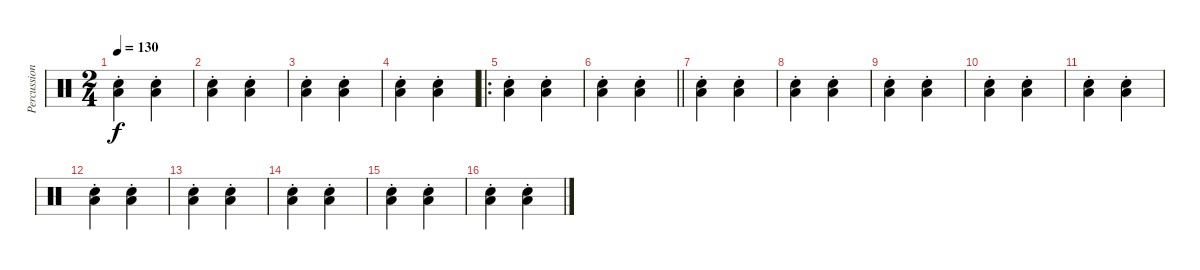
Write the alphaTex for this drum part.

\track ("Percussion" "Percussion") {instrument percussion}
\staff {score}
\articulation defaults
\ts (2 4)
\tempo 130
\clef neutral
\ks c
("Snare (hit) 2"{st} "Low Floor Tom (hit)"{st}).4{dy f} ("Snare (hit) 2"{st} "Low Floor Tom (hit)"{st}).4 |
("Snare (hit) 2"{st} "Low Floor Tom (hit)"{st}).4 ("Snare (hit) 2"{st} "Low Floor Tom (hit)"{st}).4 |
("Snare (hit) 2"{st} "Low Floor Tom (hit)"{st}).4 ("Snare (hit) 2"{st} "Low Floor Tom (hit)"{st}).4 |
("Snare (hit) 2"{st} "Low Floor Tom (hit)"{st}).4 ("Snare (hit) 2"{st} "Low Floor Tom (hit)"{st}).4 |
\ro
("Snare (hit) 2"{st} "Low Floor Tom (hit)"{st}).4 ("Snare (hit) 2"{st} "Low Floor Tom (hit)"{st}).4 |
\barLineRight lightlight
("Snare (hit) 2"{st} "Low Floor Tom (hit)"{st}).4 ("Snare (hit) 2"{st} "Low Floor Tom (hit)"{st}).4 |
("Snare (hit) 2"{st} "Low Floor Tom (hit)"{st}).4 ("Snare (hit) 2"{st} "Low Floor Tom (hit)"{st}).4 |
("Snare (hit) 2"{st} "Low Floor Tom (hit)"{st}).4 ("Snare (hit) 2"{st} "Low Floor Tom (hit)"{st}).4 |
("Snare (hit) 2"{st} "Low Floor Tom (hit)"{st}).4 ("Snare (hit) 2"{st} "Low Floor Tom (hit)"{st}).4 |
("Snare (hit) 2"{st} "Low Floor Tom (hit)"{st}).4 ("Snare (hit) 2"{st} "Low Floor Tom (hit)"{st}).4 |
("Snare (hit) 2"{st} "Low Floor Tom (hit)"{st}).4 ("Snare (hit) 2"{st} "Low Floor Tom (hit)"{st}).4 |
("Snare (hit) 2"{st} "Low Floor Tom (hit)"{st}).4 ("Snare (hit) 2"{st} "Low Floor Tom (hit)"{st}).4 |
("Snare (hit) 2"{st} "Low Floor Tom (hit)"{st}).4 ("Snare (hit) 2"{st} "Low Floor Tom (hit)"{st}).4 |
("Snare (hit) 2"{st} "Low Floor Tom (hit)"{st}).4 ("Snare (hit) 2"{st} "Low Floor Tom (hit)"{st}).4 |
("Snare (hit) 2"{st} "Low Floor Tom (hit)"{st}).4 ("Snare (hit) 2"{st} "Low Floor Tom (hit)"{st}).4 |
("Snare (hit) 2"{st} "Low Floor Tom (hit)"{st}).4 ("Snare (hit) 2"{st} "Low Floor Tom (hit)"{st}).4
